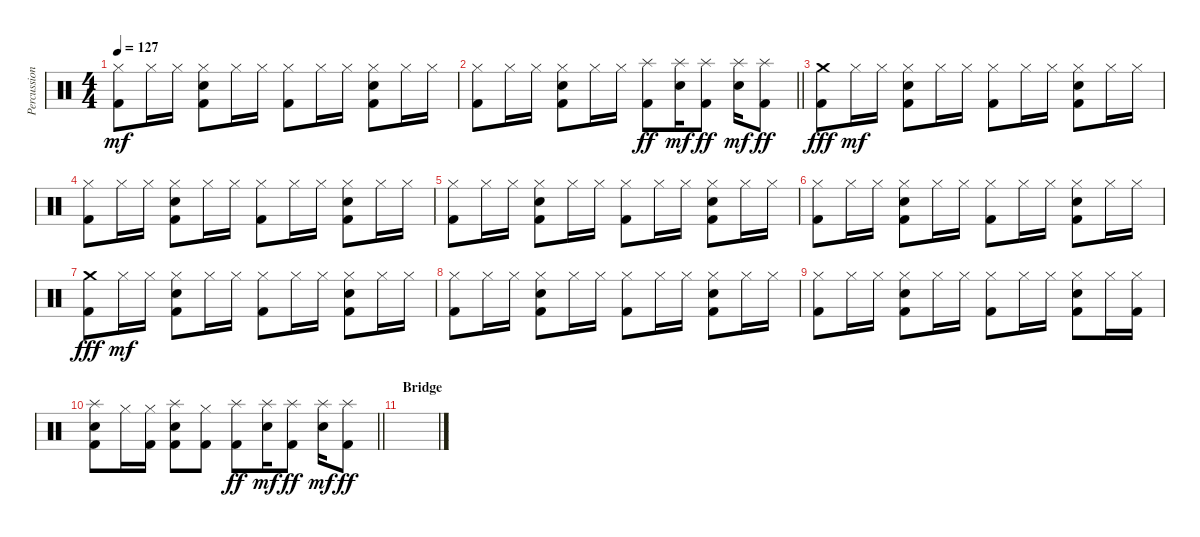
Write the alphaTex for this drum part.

\track ("Percussion" "Percussion") {instrument percussion}
\staff {score}
\articulation defaults
\ts (4 4)
\tempo 127
\clef neutral
\ks c
("Hi-Hat (closed)" "Kick (hit) 2").8{dy mf} "Hi-Hat (closed)".16 "Hi-Hat (closed)".16 ("Hi-Hat (closed)" "Snare (hit) 2" "Kick (hit) 2").8 "Hi-Hat (closed)".16 "Hi-Hat (closed)".16 ("Hi-Hat (closed)" "Kick (hit) 2").8 "Hi-Hat (closed)".16 "Hi-Hat (closed)".16 ("Hi-Hat (closed)" "Snare (hit) 2" "Kick (hit) 2").8 "Hi-Hat (closed)".16 "Hi-Hat (closed)".16 |
\barLineRight lightlight
("Hi-Hat (closed)" "Kick (hit) 2").8 "Hi-Hat (closed)".16 "Hi-Hat (closed)".16 ("Hi-Hat (closed)" "Snare (hit) 2" "Kick (hit) 2").8 "Hi-Hat (closed)".16 "Hi-Hat (closed)".16 ("Splash (hit)" "Kick (hit) 2").8{dy ff} ("Splash (hit)" "Snare (hit) 2").16{dy mf} ("Splash (hit)" "Kick (hit) 2").8{dy ff} ("Splash (hit)" "Snare (hit) 2").16{dy mf} ("Splash (hit)" "Kick (hit) 2").8{dy ff} |
("Crash medium (hit)" "Kick (hit) 2").8{dy fff} "Hi-Hat (closed)".16{dy mf} "Hi-Hat (closed)".16 ("Hi-Hat (closed)" "Snare (hit) 2" "Kick (hit) 2").8 "Hi-Hat (closed)".16 "Hi-Hat (closed)".16 ("Hi-Hat (closed)" "Kick (hit) 2").8 "Hi-Hat (closed)".16 "Hi-Hat (closed)".16 ("Hi-Hat (closed)" "Snare (hit) 2" "Kick (hit) 2").8 "Hi-Hat (closed)".16 "Hi-Hat (closed)".16 |
("Hi-Hat (closed)" "Kick (hit) 2").8 "Hi-Hat (closed)".16 "Hi-Hat (closed)".16 ("Hi-Hat (closed)" "Snare (hit) 2" "Kick (hit) 2").8 "Hi-Hat (closed)".16 "Hi-Hat (closed)".16 ("Hi-Hat (closed)" "Kick (hit) 2").8 "Hi-Hat (closed)".16 "Hi-Hat (closed)".16 ("Hi-Hat (closed)" "Snare (hit) 2" "Kick (hit) 2").8 "Hi-Hat (closed)".16 "Hi-Hat (closed)".16 |
("Hi-Hat (closed)" "Kick (hit) 2").8 "Hi-Hat (closed)".16 "Hi-Hat (closed)".16 ("Hi-Hat (closed)" "Snare (hit) 2" "Kick (hit) 2").8 "Hi-Hat (closed)".16 "Hi-Hat (closed)".16 ("Hi-Hat (closed)" "Kick (hit) 2").8 "Hi-Hat (closed)".16 "Hi-Hat (closed)".16 ("Hi-Hat (closed)" "Snare (hit) 2" "Kick (hit) 2").8 "Hi-Hat (closed)".16 "Hi-Hat (closed)".16 |
("Hi-Hat (closed)" "Kick (hit) 2").8 "Hi-Hat (closed)".16 "Hi-Hat (closed)".16 ("Hi-Hat (closed)" "Snare (hit) 2" "Kick (hit) 2").8 "Hi-Hat (closed)".16 "Hi-Hat (closed)".16 ("Hi-Hat (closed)" "Kick (hit) 2").8 "Hi-Hat (closed)".16 "Hi-Hat (closed)".16 ("Hi-Hat (closed)" "Snare (hit) 2" "Kick (hit) 2").8 "Hi-Hat (closed)".16 "Hi-Hat (closed)".16 |
("Crash medium (hit)" "Kick (hit) 2").8{dy fff} "Hi-Hat (closed)".16{dy mf} "Hi-Hat (closed)".16 ("Hi-Hat (closed)" "Snare (hit) 2" "Kick (hit) 2").8 "Hi-Hat (closed)".16 "Hi-Hat (closed)".16 ("Hi-Hat (closed)" "Kick (hit) 2").8 "Hi-Hat (closed)".16 "Hi-Hat (closed)".16 ("Hi-Hat (closed)" "Snare (hit) 2" "Kick (hit) 2").8 "Hi-Hat (closed)".16 "Hi-Hat (closed)".16 |
("Hi-Hat (closed)" "Kick (hit) 2").8 "Hi-Hat (closed)".16 "Hi-Hat (closed)".16 ("Hi-Hat (closed)" "Snare (hit) 2" "Kick (hit) 2").8 "Hi-Hat (closed)".16 "Hi-Hat (closed)".16 ("Hi-Hat (closed)" "Kick (hit) 2").8 "Hi-Hat (closed)".16 "Hi-Hat (closed)".16 ("Hi-Hat (closed)" "Snare (hit) 2" "Kick (hit) 2").8 "Hi-Hat (closed)".16 "Hi-Hat (closed)".16 |
("Hi-Hat (closed)" "Kick (hit) 2").8 "Hi-Hat (closed)".16 "Hi-Hat (closed)".16 ("Hi-Hat (closed)" "Snare (hit) 2" "Kick (hit) 2").8 "Hi-Hat (closed)".16 "Hi-Hat (closed)".16 ("Hi-Hat (closed)" "Kick (hit) 2").8 "Hi-Hat (closed)".16 "Hi-Hat (closed)".16 ("Hi-Hat (closed)" "Snare (hit) 2" "Kick (hit) 2").8 "Hi-Hat (closed)".16 ("Hi-Hat (closed)" "Kick (hit) 2").16 |
\barLineRight lightlight
("Splash (hit)" "Snare (hit) 2" "Kick (hit) 2").8 "Hi-Hat (closed)".16 ("Hi-Hat (closed)" "Kick (hit) 2").16 ("Splash (hit)" "Snare (hit) 2" "Kick (hit) 2").8 ("Hi-Hat (closed)" "Kick (hit) 2").8 ("Splash (hit)" "Kick (hit) 2").8{dy ff} ("Splash (hit)" "Snare (hit) 2").16{dy mf} ("Splash (hit)" "Kick (hit) 2").8{dy ff} ("Splash (hit)" "Snare (hit) 2").16{dy mf} ("Splash (hit)" "Kick (hit) 2").8{dy ff} |
\section ("" "Bridge")
